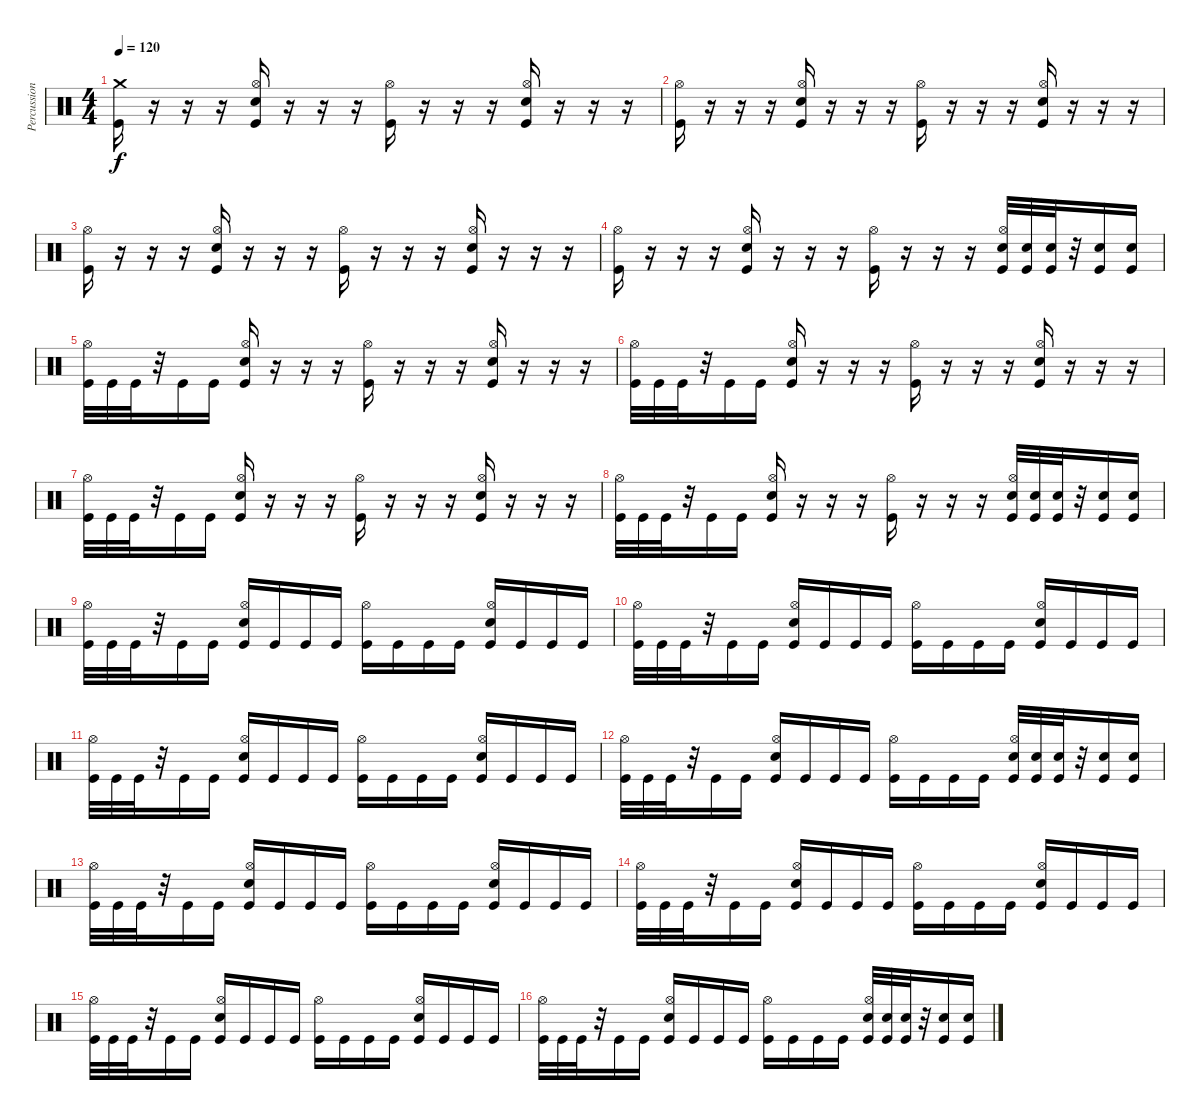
\track ("Percussion" "Percussion") {instrument percussion}
\staff {score}
\articulation defaults
\ts (4 4)
\tempo 120
\clef neutral
\ks c
("Crash medium (hit)" "Kick (hit)").16{dy f} r.16 r.16 r.16 ("Hi-Hat (open)" "Electric Snare (hit)" "Kick (hit)").16 r.16 r.16 r.16 ("Hi-Hat (open)" "Kick (hit)").16 r.16 r.16 r.16 ("Hi-Hat (open)" "Electric Snare (hit)" "Kick (hit)").16 r.16 r.16 r.16 |
("Hi-Hat (open)" "Kick (hit)").16 r.16 r.16 r.16 ("Hi-Hat (open)" "Electric Snare (hit)" "Kick (hit)").16 r.16 r.16 r.16 ("Hi-Hat (open)" "Kick (hit)").16 r.16 r.16 r.16 ("Hi-Hat (open)" "Electric Snare (hit)" "Kick (hit)").16 r.16 r.16 r.16 |
("Hi-Hat (open)" "Kick (hit)").16 r.16 r.16 r.16 ("Hi-Hat (open)" "Electric Snare (hit)" "Kick (hit)").16 r.16 r.16 r.16 ("Hi-Hat (open)" "Kick (hit)").16 r.16 r.16 r.16 ("Hi-Hat (open)" "Electric Snare (hit)" "Kick (hit)").16 r.16 r.16 r.16 |
("Hi-Hat (open)" "Kick (hit)").16 r.16 r.16 r.16 ("Hi-Hat (open)" "Electric Snare (hit)" "Kick (hit)").16 r.16 r.16 r.16 ("Hi-Hat (open)" "Kick (hit)").16 r.16 r.16 r.16 ("Hi-Hat (open)" "Electric Snare (hit)" "Kick (hit)").32 ("Electric Snare (hit)" "Kick (hit)").32 ("Electric Snare (hit)" "Kick (hit)").32 r.32 ("Electric Snare (hit)" "Kick (hit)").16 ("Electric Snare (hit)" "Kick (hit)").16 |
("Hi-Hat (open)" "Kick (hit)").32 "Kick (hit)".32 "Kick (hit)".32 r.32 "Kick (hit)".16 "Kick (hit)".16 ("Hi-Hat (open)" "Electric Snare (hit)" "Kick (hit)").16 r.16 r.16 r.16 ("Hi-Hat (open)" "Kick (hit)").16 r.16 r.16 r.16 ("Hi-Hat (open)" "Electric Snare (hit)" "Kick (hit)").16 r.16 r.16 r.16 |
("Hi-Hat (open)" "Kick (hit)").32 "Kick (hit)".32 "Kick (hit)".32 r.32 "Kick (hit)".16 "Kick (hit)".16 ("Hi-Hat (open)" "Electric Snare (hit)" "Kick (hit)").16 r.16 r.16 r.16 ("Hi-Hat (open)" "Kick (hit)").16 r.16 r.16 r.16 ("Hi-Hat (open)" "Electric Snare (hit)" "Kick (hit)").16 r.16 r.16 r.16 |
("Hi-Hat (open)" "Kick (hit)").32 "Kick (hit)".32 "Kick (hit)".32 r.32 "Kick (hit)".16 "Kick (hit)".16 ("Hi-Hat (open)" "Electric Snare (hit)" "Kick (hit)").16 r.16 r.16 r.16 ("Hi-Hat (open)" "Kick (hit)").16 r.16 r.16 r.16 ("Hi-Hat (open)" "Electric Snare (hit)" "Kick (hit)").16 r.16 r.16 r.16 |
("Hi-Hat (open)" "Kick (hit)").32 "Kick (hit)".32 "Kick (hit)".32 r.32 "Kick (hit)".16 "Kick (hit)".16 ("Hi-Hat (open)" "Electric Snare (hit)" "Kick (hit)").16 r.16 r.16 r.16 ("Hi-Hat (open)" "Kick (hit)").16 r.16 r.16 r.16 ("Hi-Hat (open)" "Electric Snare (hit)" "Kick (hit)").32 ("Electric Snare (hit)" "Kick (hit)").32 ("Electric Snare (hit)" "Kick (hit)").32 r.32 ("Electric Snare (hit)" "Kick (hit)").16 ("Electric Snare (hit)" "Kick (hit)").16 |
("Hi-Hat (open)" "Kick (hit)").32 "Kick (hit)".32 "Kick (hit)".32 r.32 "Kick (hit)".16 "Kick (hit)".16 ("Hi-Hat (open)" "Electric Snare (hit)" "Kick (hit)").16 "Kick (hit)".16 "Kick (hit)".16 "Kick (hit)".16 ("Hi-Hat (open)" "Kick (hit)").16 "Kick (hit)".16 "Kick (hit)".16 "Kick (hit)".16 ("Hi-Hat (open)" "Electric Snare (hit)" "Kick (hit)").16 "Kick (hit)".16 "Kick (hit)".16 "Kick (hit)".16 |
("Hi-Hat (open)" "Kick (hit)").32 "Kick (hit)".32 "Kick (hit)".32 r.32 "Kick (hit)".16 "Kick (hit)".16 ("Hi-Hat (open)" "Electric Snare (hit)" "Kick (hit)").16 "Kick (hit)".16 "Kick (hit)".16 "Kick (hit)".16 ("Hi-Hat (open)" "Kick (hit)").16 "Kick (hit)".16 "Kick (hit)".16 "Kick (hit)".16 ("Hi-Hat (open)" "Electric Snare (hit)" "Kick (hit)").16 "Kick (hit)".16 "Kick (hit)".16 "Kick (hit)".16 |
("Hi-Hat (open)" "Kick (hit)").32 "Kick (hit)".32 "Kick (hit)".32 r.32 "Kick (hit)".16 "Kick (hit)".16 ("Hi-Hat (open)" "Electric Snare (hit)" "Kick (hit)").16 "Kick (hit)".16 "Kick (hit)".16 "Kick (hit)".16 ("Hi-Hat (open)" "Kick (hit)").16 "Kick (hit)".16 "Kick (hit)".16 "Kick (hit)".16 ("Hi-Hat (open)" "Electric Snare (hit)" "Kick (hit)").16 "Kick (hit)".16 "Kick (hit)".16 "Kick (hit)".16 |
("Hi-Hat (open)" "Kick (hit)").32 "Kick (hit)".32 "Kick (hit)".32 r.32 "Kick (hit)".16 "Kick (hit)".16 ("Hi-Hat (open)" "Electric Snare (hit)" "Kick (hit)").16 "Kick (hit)".16 "Kick (hit)".16 "Kick (hit)".16 ("Hi-Hat (open)" "Kick (hit)").16 "Kick (hit)".16 "Kick (hit)".16 "Kick (hit)".16 ("Hi-Hat (open)" "Electric Snare (hit)" "Kick (hit)").32 ("Electric Snare (hit)" "Kick (hit)").32 ("Electric Snare (hit)" "Kick (hit)").32 r.32 ("Electric Snare (hit)" "Kick (hit)").16 ("Electric Snare (hit)" "Kick (hit)").16 |
("Hi-Hat (open)" "Kick (hit)").32 "Kick (hit)".32 "Kick (hit)".32 r.32 "Kick (hit)".16 "Kick (hit)".16 ("Hi-Hat (open)" "Electric Snare (hit)" "Kick (hit)").16 "Kick (hit)".16 "Kick (hit)".16 "Kick (hit)".16 ("Hi-Hat (open)" "Kick (hit)").16 "Kick (hit)".16 "Kick (hit)".16 "Kick (hit)".16 ("Hi-Hat (open)" "Electric Snare (hit)" "Kick (hit)").16 "Kick (hit)".16 "Kick (hit)".16 "Kick (hit)".16 |
("Hi-Hat (open)" "Kick (hit)").32 "Kick (hit)".32 "Kick (hit)".32 r.32 "Kick (hit)".16 "Kick (hit)".16 ("Hi-Hat (open)" "Electric Snare (hit)" "Kick (hit)").16 "Kick (hit)".16 "Kick (hit)".16 "Kick (hit)".16 ("Hi-Hat (open)" "Kick (hit)").16 "Kick (hit)".16 "Kick (hit)".16 "Kick (hit)".16 ("Hi-Hat (open)" "Electric Snare (hit)" "Kick (hit)").16 "Kick (hit)".16 "Kick (hit)".16 "Kick (hit)".16 |
("Hi-Hat (open)" "Kick (hit)").32 "Kick (hit)".32 "Kick (hit)".32 r.32 "Kick (hit)".16 "Kick (hit)".16 ("Hi-Hat (open)" "Electric Snare (hit)" "Kick (hit)").16 "Kick (hit)".16 "Kick (hit)".16 "Kick (hit)".16 ("Hi-Hat (open)" "Kick (hit)").16 "Kick (hit)".16 "Kick (hit)".16 "Kick (hit)".16 ("Hi-Hat (open)" "Electric Snare (hit)" "Kick (hit)").16 "Kick (hit)".16 "Kick (hit)".16 "Kick (hit)".16 |
("Hi-Hat (open)" "Kick (hit)").32 "Kick (hit)".32 "Kick (hit)".32 r.32 "Kick (hit)".16 "Kick (hit)".16 ("Hi-Hat (open)" "Electric Snare (hit)" "Kick (hit)").16 "Kick (hit)".16 "Kick (hit)".16 "Kick (hit)".16 ("Hi-Hat (open)" "Kick (hit)").16 "Kick (hit)".16 "Kick (hit)".16 "Kick (hit)".16 ("Hi-Hat (open)" "Electric Snare (hit)" "Kick (hit)").32 ("Electric Snare (hit)" "Kick (hit)").32 ("Electric Snare (hit)" "Kick (hit)").32 r.32 ("Electric Snare (hit)" "Kick (hit)").16 ("Electric Snare (hit)" "Kick (hit)").16
